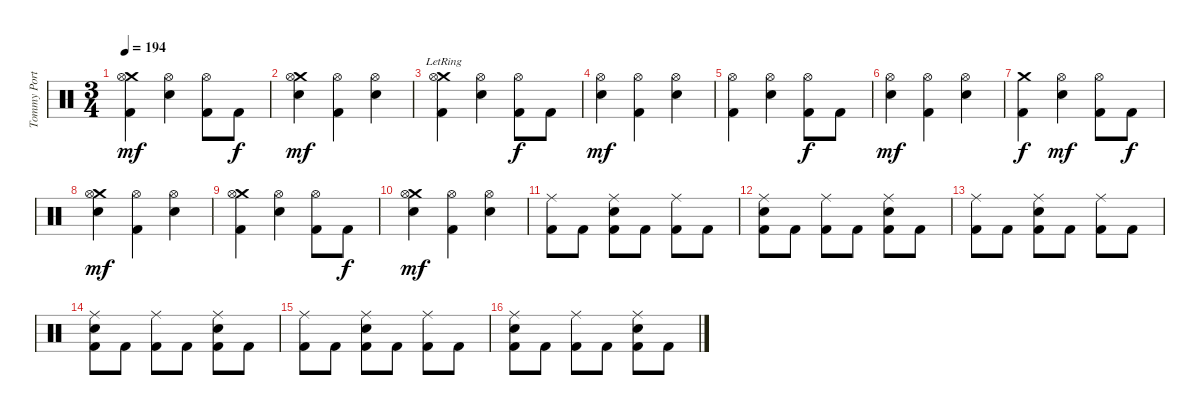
\track ("Tommy Portino" "Tommy Port") {instrument percussion}
\staff {score}
\articulation defaults
\ts (3 4)
\tempo 194
\clef neutral
\ks c
("Crash medium (hit)" "Hi-Hat (open)" "Kick (hit) 2").4{dy mf} ("Snare (hit) 2" "Hi-Hat (open)").4 ("Hi-Hat (open)" "Kick (hit) 2").8 "Kick (hit) 2".8{dy f} |
("Crash medium (hit)" "Snare (hit) 2" "Hi-Hat (open)").4{dy mf} ("Hi-Hat (open)" "Kick (hit) 2").4 ("Snare (hit) 2" "Hi-Hat (open)").4 |
("Crash medium (hit)"{lr} "Hi-Hat (open)" "Kick (hit) 2").4 ("Hi-Hat (open)" "Snare (hit) 2").4 ("Hi-Hat (open)" "Kick (hit) 2").8{dy f} "Kick (hit) 2".8 |
("Hi-Hat (open)" "Snare (hit) 2").4{dy mf} ("Hi-Hat (open)" "Kick (hit) 2").4 ("Hi-Hat (open)" "Snare (hit) 2").4 |
("Hi-Hat (open)" "Kick (hit) 2").4 ("Hi-Hat (open)" "Snare (hit) 2").4 ("Hi-Hat (open)" "Kick (hit) 2").8{dy f} "Kick (hit) 2".8 |
("Hi-Hat (open)" "Snare (hit) 2").4{dy mf} ("Hi-Hat (open)" "Kick (hit) 2").4 ("Hi-Hat (open)" "Snare (hit) 2").4 |
("Crash medium (hit)" "Kick (hit) 2").4{dy f} ("Snare (hit) 2" "Hi-Hat (open)").4{dy mf} ("Hi-Hat (open)" "Kick (hit) 2").8 "Kick (hit) 2".8{dy f} |
("Crash medium (hit)" "Snare (hit) 2" "Hi-Hat (open)").4{dy mf} ("Hi-Hat (open)" "Kick (hit) 2").4 ("Snare (hit) 2" "Hi-Hat (open)").4 |
("Crash medium (hit)" "Hi-Hat (open)" "Kick (hit) 2").4 ("Snare (hit) 2" "Hi-Hat (open)").4 ("Hi-Hat (open)" "Kick (hit) 2").8 "Kick (hit) 2".8{dy f} |
("Crash medium (hit)" "Snare (hit) 2" "Hi-Hat (open)").4{dy mf} ("Hi-Hat (open)" "Kick (hit) 2").4 ("Snare (hit) 2" "Hi-Hat (open)").4 |
("Ride (middle)" "Kick (hit) 2").8 "Kick (hit) 2".8 ("Ride (middle)" "Snare (hit) 2" "Kick (hit) 2").8 "Kick (hit) 2".8 ("Ride (middle)" "Kick (hit) 2").8 "Kick (hit) 2".8 |
("Ride (middle)" "Snare (hit) 2" "Kick (hit) 2").8 "Kick (hit) 2".8 ("Ride (middle)" "Kick (hit) 2").8 "Kick (hit) 2".8 ("Ride (middle)" "Snare (hit) 2" "Kick (hit) 2").8 "Kick (hit) 2".8 |
("Ride (middle)" "Kick (hit) 2").8 "Kick (hit) 2".8 ("Ride (middle)" "Snare (hit) 2" "Kick (hit) 2").8 "Kick (hit) 2".8 ("Ride (middle)" "Kick (hit) 2").8 "Kick (hit) 2".8 |
("Ride (middle)" "Snare (hit) 2" "Kick (hit) 2").8 "Kick (hit) 2".8 ("Ride (middle)" "Kick (hit) 2").8 "Kick (hit) 2".8 ("Ride (middle)" "Snare (hit) 2" "Kick (hit) 2").8 "Kick (hit) 2".8 |
("Ride (middle)" "Kick (hit) 2").8 "Kick (hit) 2".8 ("Ride (middle)" "Snare (hit) 2" "Kick (hit) 2").8 "Kick (hit) 2".8 ("Ride (middle)" "Kick (hit) 2").8 "Kick (hit) 2".8 |
("Ride (middle)" "Snare (hit) 2" "Kick (hit) 2").8 "Kick (hit) 2".8 ("Ride (middle)" "Kick (hit) 2").8 "Kick (hit) 2".8 ("Ride (middle)" "Snare (hit) 2" "Kick (hit) 2").8 "Kick (hit) 2".8
